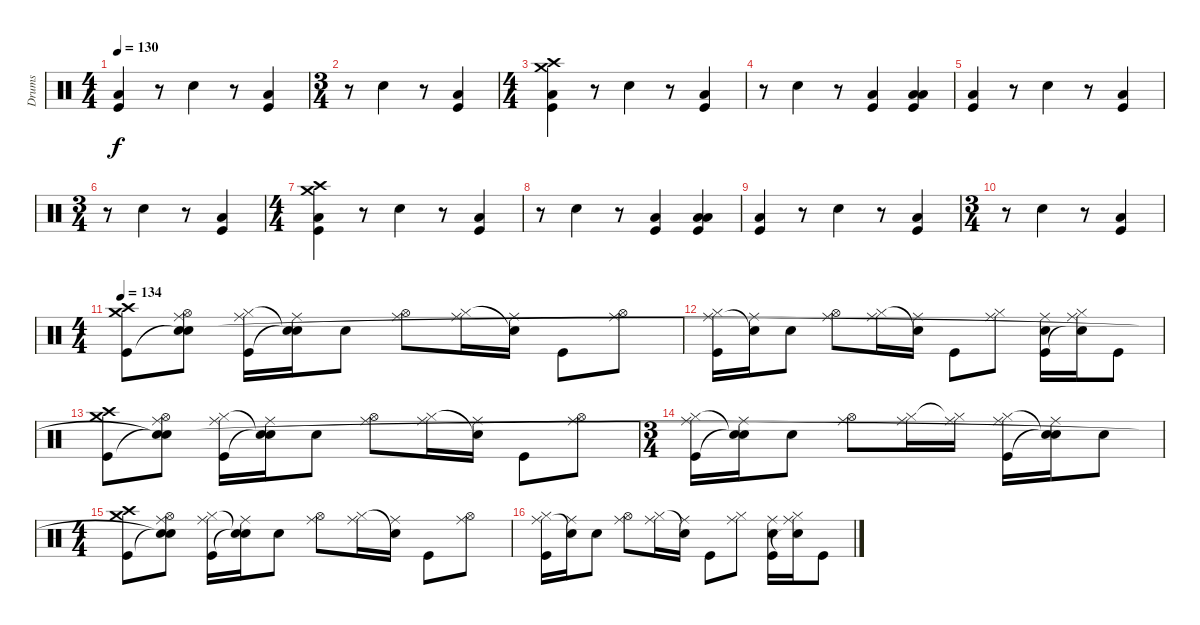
\track ("Drums" "Drums") {instrument percussion}
\staff {score}
\articulation defaults
\ts (4 4)
\tempo 130
\clef neutral
\ks c
("Low Floor Tom (hit)" "Kick (hit)").4{dy f} r.8 "Electric Snare (hit)".4 r.8 ("Low Tom (hit)" "Kick (hit)").4 |
\ts (3 4)
r.8 "Electric Snare (hit)".4 r.8 ("Low Tom (hit)" "Kick (hit)").4 |
\ts (4 4)
("Low Floor Tom (hit)" "Crash high (hit)" "Crash medium (hit)" "Kick (hit)").4 r.8 "Electric Snare (hit)".4 r.8 ("Low Tom (hit)" "Kick (hit)").4 |
r.8 "Electric Snare (hit)".4 r.8 ("Low Tom (hit)" "Kick (hit)").4 ("Low Tom (hit)" "Low Floor Tom (hit)" "Kick (hit)").4 |
("Low Floor Tom (hit)" "Kick (hit)").4 r.8 "Electric Snare (hit)".4 r.8 ("Low Tom (hit)" "Kick (hit)").4 |
\ts (3 4)
r.8 "Electric Snare (hit)".4 r.8 ("Low Tom (hit)" "Kick (hit)").4 |
\ts (4 4)
("Low Floor Tom (hit)" "Crash high (hit)" "Crash medium (hit)" "Kick (hit)").4 r.8 "Electric Snare (hit)".4 r.8 ("Low Tom (hit)" "Kick (hit)").4 |
r.8 "Electric Snare (hit)".4 r.8 ("Low Tom (hit)" "Kick (hit)").4 ("Low Tom (hit)" "Low Floor Tom (hit)" "Kick (hit)").4 |
("Low Floor Tom (hit)" "Kick (hit)").4 r.8 "Electric Snare (hit)".4 r.8 ("Low Tom (hit)" "Kick (hit)").4 |
\ts (3 4)
r.8 "Electric Snare (hit)".4 r.8 ("Low Tom (hit)" "Kick (hit)").4 |
\ts (4 4)
\tempo 134
("Crash high (hit)" "Crash medium (hit)" "Kick (hit)").8 ("Hi-Hat (open)" "Ride (middle)" "Snare (hit)"{t} "Snare (hit)").8 ("Hi-Hat (closed)" "Ride (middle)" "Kick (hit)").16 ("Snare (hit)"{t} "Ride (middle)" "Snare (hit)"{t}).16 "Electric Snare (hit)".8 ("Hi-Hat (open)" "Ride (middle)").8 ("Hi-Hat (closed)" "Ride (middle)").16 ("Snare (hit)"{t} "Ride (middle)").16 "Kick (hit)".8 ("Hi-Hat (open)" "Ride (middle)").8 |
("Hi-Hat (closed)" "Ride (middle)" "Kick (hit)").16 ("Ride (middle)" "Snare (hit)"{t}).16 "Electric Snare (hit)".8 ("Hi-Hat (open)" "Ride (middle)").8 ("Hi-Hat (closed)" "Ride (middle)").16 ("Snare (hit)"{t} "Ride (middle)").16 "Kick (hit)".8 ("Hi-Hat (closed)" "Ride (middle)").8 ("Electric Snare (hit)" "Ride (middle)" "Kick (hit)").16 ("Hi-Hat (closed)" "Ride (middle)" "Snare (hit)"{t}).16 "Kick (hit)".8 |
("Crash high (hit)" "Crash medium (hit)" "Kick (hit)").8 ("Hi-Hat (open)" "Ride (middle)" "Snare (hit)"{t} "Snare (hit)"{t}).8 ("Hi-Hat (closed)" "Ride (middle)" "Kick (hit)").16 ("Snare (hit)"{t} "Ride (middle)" "Snare (hit)"{t}).16 "Electric Snare (hit)".8 ("Hi-Hat (open)" "Ride (middle)").8 ("Hi-Hat (closed)" "Ride (middle)").16 ("Snare (hit)"{t} "Ride (middle)").16 "Kick (hit)".8 ("Hi-Hat (open)" "Ride (middle)").8 |
\ts (3 4)
("Hi-Hat (closed)" "Ride (middle)" "Kick (hit)").16 ("Snare (hit)"{t} "Ride (middle)" "Snare (hit)"{t}).16 "Electric Snare (hit)".8 ("Hi-Hat (open)" "Ride (middle)").8 ("Hi-Hat (closed)" "Ride (middle)").16 ("Hi-Hat (closed)"{t} "Ride (middle)").16 ("Hi-Hat (closed)" "Ride (middle)" "Kick (hit)").16 ("Snare (hit)"{t} "Ride (middle)" "Snare (hit)"{t}).16 "Electric Snare (hit)".8 |
\ts (4 4)
("Crash high (hit)" "Crash medium (hit)" "Kick (hit)").8 ("Hi-Hat (open)" "Ride (middle)" "Snare (hit)"{t} "Snare (hit)"{t}).8 ("Hi-Hat (closed)" "Ride (middle)" "Kick (hit)").16 ("Snare (hit)"{t} "Ride (middle)" "Snare (hit)"{t}).16 "Electric Snare (hit)".8 ("Hi-Hat (open)" "Ride (middle)").8 ("Hi-Hat (closed)" "Ride (middle)").16 ("Snare (hit)"{t} "Ride (middle)").16 "Kick (hit)".8 ("Hi-Hat (open)" "Ride (middle)").8 |
("Hi-Hat (closed)" "Ride (middle)" "Kick (hit)").16 ("Ride (middle)" "Snare (hit)"{t}).16 "Electric Snare (hit)".8 ("Hi-Hat (open)" "Ride (middle)").8 ("Hi-Hat (closed)" "Ride (middle)").16 ("Snare (hit)"{t} "Ride (middle)").16 "Kick (hit)".8 ("Hi-Hat (closed)" "Ride (middle)").8 ("Electric Snare (hit)" "Ride (middle)" "Kick (hit)").16 ("Hi-Hat (closed)" "Ride (middle)" "Snare (hit)"{t}).16 "Kick (hit)".8
